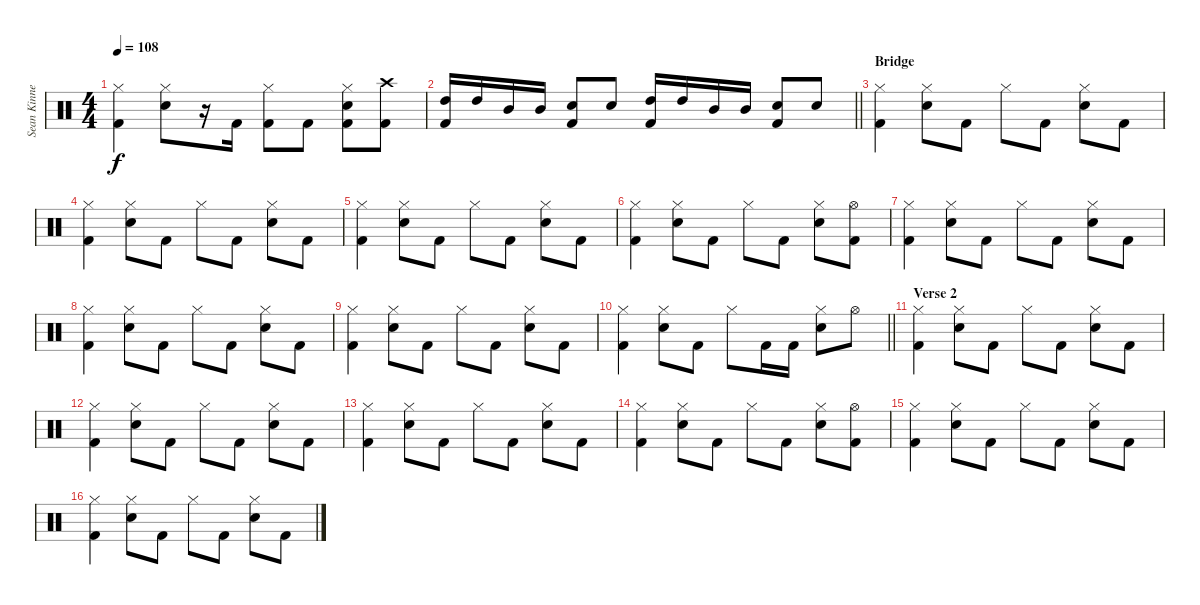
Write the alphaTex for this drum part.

\track ("Sean Kinney- Drums" "Sean Kinne") {instrument percussion}
\staff {score}
\articulation defaults
\ts (4 4)
\tempo 108
\clef neutral
\ks c
("Hi-Hat (closed)" "Kick (hit) 2").4{dy f} ("Hi-Hat (closed)" "Electric Snare (hit)").8 r.16 "Kick (hit) 2".16 ("Hi-Hat (closed)" "Kick (hit) 2").8 "Kick (hit) 2".8 ("Hi-Hat (closed)" "Electric Snare (hit)" "Kick (hit) 2").8 ("Crash high (hit)" "Kick (hit) 2").8 |
\barLineRight lightlight
("High Tom (hit)" "Kick (hit) 2").16 "High Tom (hit)".16 "Mid Tom (hit)".16 "Mid Tom (hit)".16 ("Electric Snare (hit)" "Kick (hit) 2").8 "Electric Snare (hit)".8 ("High Tom (hit)" "Kick (hit) 2").16 "High Tom (hit)".16 "Mid Tom (hit)".16 "Mid Tom (hit)".16 ("Electric Snare (hit)" "Kick (hit) 2").8 "Electric Snare (hit)".8 |
\section ("" "Bridge")
("Hi-Hat (closed)" "Kick (hit) 2").4 ("Hi-Hat (closed)" "Electric Snare (hit)").8 "Kick (hit) 2".8 "Hi-Hat (closed)".8 "Kick (hit) 2".8 ("Hi-Hat (closed)" "Electric Snare (hit)").8 "Kick (hit) 2".8 |
("Hi-Hat (closed)" "Kick (hit) 2").4 ("Hi-Hat (closed)" "Electric Snare (hit)").8 "Kick (hit) 2".8 "Hi-Hat (closed)".8 "Kick (hit) 2".8 ("Hi-Hat (closed)" "Electric Snare (hit)").8 "Kick (hit) 2".8 |
("Hi-Hat (closed)" "Kick (hit) 2").4 ("Hi-Hat (closed)" "Electric Snare (hit)").8 "Kick (hit) 2".8 "Hi-Hat (closed)".8 "Kick (hit) 2".8 ("Hi-Hat (closed)" "Electric Snare (hit)").8 "Kick (hit) 2".8 |
("Hi-Hat (closed)" "Kick (hit) 2").4 ("Hi-Hat (closed)" "Electric Snare (hit)").8 "Kick (hit) 2".8 "Hi-Hat (closed)".8 "Kick (hit) 2".8 ("Hi-Hat (closed)" "Electric Snare (hit)").8 ("Hi-Hat (open)" "Kick (hit) 2").8 |
("Hi-Hat (closed)" "Kick (hit) 2").4 ("Hi-Hat (closed)" "Electric Snare (hit)").8 "Kick (hit) 2".8 "Hi-Hat (closed)".8 "Kick (hit) 2".8 ("Hi-Hat (closed)" "Electric Snare (hit)").8 "Kick (hit) 2".8 |
("Hi-Hat (closed)" "Kick (hit) 2").4 ("Hi-Hat (closed)" "Electric Snare (hit)").8 "Kick (hit) 2".8 "Hi-Hat (closed)".8 "Kick (hit) 2".8 ("Hi-Hat (closed)" "Electric Snare (hit)").8 "Kick (hit) 2".8 |
("Hi-Hat (closed)" "Kick (hit) 2").4 ("Hi-Hat (closed)" "Electric Snare (hit)").8 "Kick (hit) 2".8 "Hi-Hat (closed)".8 "Kick (hit) 2".8 ("Hi-Hat (closed)" "Electric Snare (hit)").8 "Kick (hit) 2".8 |
\barLineRight lightlight
("Hi-Hat (closed)" "Kick (hit) 2").4 ("Hi-Hat (closed)" "Electric Snare (hit)").8 "Kick (hit) 2".8 "Hi-Hat (closed)".8 "Kick (hit) 2".16 "Kick (hit) 2".16 ("Hi-Hat (closed)" "Electric Snare (hit)").8 "Hi-Hat (open)".8 |
\section ("" "Verse 2")
("Hi-Hat (closed)" "Kick (hit) 2").4 ("Hi-Hat (closed)" "Electric Snare (hit)").8 "Kick (hit) 2".8 "Hi-Hat (closed)".8 "Kick (hit) 2".8 ("Hi-Hat (closed)" "Electric Snare (hit)").8 "Kick (hit) 2".8 |
("Hi-Hat (closed)" "Kick (hit) 2").4 ("Hi-Hat (closed)" "Electric Snare (hit)").8 "Kick (hit) 2".8 "Hi-Hat (closed)".8 "Kick (hit) 2".8 ("Hi-Hat (closed)" "Electric Snare (hit)").8 "Kick (hit) 2".8 |
("Hi-Hat (closed)" "Kick (hit) 2").4 ("Hi-Hat (closed)" "Electric Snare (hit)").8 "Kick (hit) 2".8 "Hi-Hat (closed)".8 "Kick (hit) 2".8 ("Hi-Hat (closed)" "Electric Snare (hit)").8 "Kick (hit) 2".8 |
("Hi-Hat (closed)" "Kick (hit) 2").4 ("Hi-Hat (closed)" "Electric Snare (hit)").8 "Kick (hit) 2".8 "Hi-Hat (closed)".8 "Kick (hit) 2".8 ("Hi-Hat (closed)" "Electric Snare (hit)").8 ("Hi-Hat (open)" "Kick (hit) 2").8 |
("Hi-Hat (closed)" "Kick (hit) 2").4 ("Hi-Hat (closed)" "Electric Snare (hit)").8 "Kick (hit) 2".8 "Hi-Hat (closed)".8 "Kick (hit) 2".8 ("Hi-Hat (closed)" "Electric Snare (hit)").8 "Kick (hit) 2".8 |
("Hi-Hat (closed)" "Kick (hit) 2").4 ("Hi-Hat (closed)" "Electric Snare (hit)").8 "Kick (hit) 2".8 "Hi-Hat (closed)".8 "Kick (hit) 2".8 ("Hi-Hat (closed)" "Electric Snare (hit)").8 "Kick (hit) 2".8
